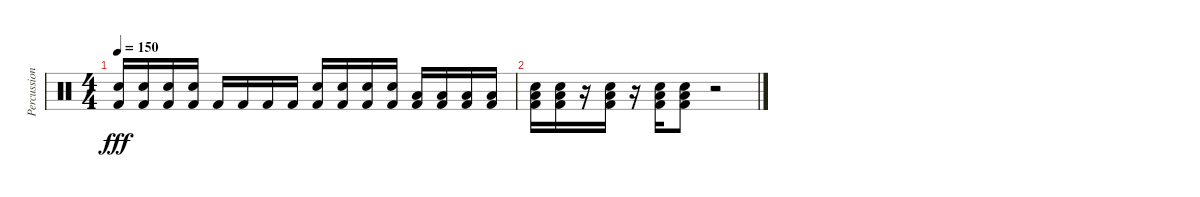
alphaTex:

\track ("Percussion" "Percussion") {instrument percussion}
\staff {score}
\articulation defaults
\ts (4 4)
\tempo 150
\clef neutral
\ks c
("Electric Snare (hit)" "Kick (hit) 2").16{dy fff} ("Electric Snare (hit)" "Kick (hit) 2").16 ("Electric Snare (hit)" "Kick (hit) 2").16 ("Electric Snare (hit)" "Kick (hit) 2").16 "Kick (hit) 2".16 "Kick (hit) 2".16 "Kick (hit) 2".16 "Kick (hit) 2".16 ("Electric Snare (hit)" "Kick (hit) 2").16 ("Electric Snare (hit)" "Kick (hit) 2").16 ("Electric Snare (hit)" "Kick (hit) 2").16 ("Electric Snare (hit)" "Kick (hit) 2").16 ("Low Tom (hit)" "Kick (hit) 2").16 ("Low Tom (hit)" "Kick (hit) 2").16 ("Low Floor Tom (hit)" "Kick (hit) 2").16 ("Low Floor Tom (hit)" "Kick (hit) 2").16 |
("Low Floor Tom (hit)" "Electric Snare (hit)" "Kick (hit) 2").16 ("Low Floor Tom (hit)" "Electric Snare (hit)" "Kick (hit) 2").16 r.16 ("Low Floor Tom (hit)" "Electric Snare (hit)" "Kick (hit) 2").16 r.16 ("Low Floor Tom (hit)" "Electric Snare (hit)" "Kick (hit) 2").16 ("Low Floor Tom (hit)" "Electric Snare (hit)" "Kick (hit) 2").8 r.2
